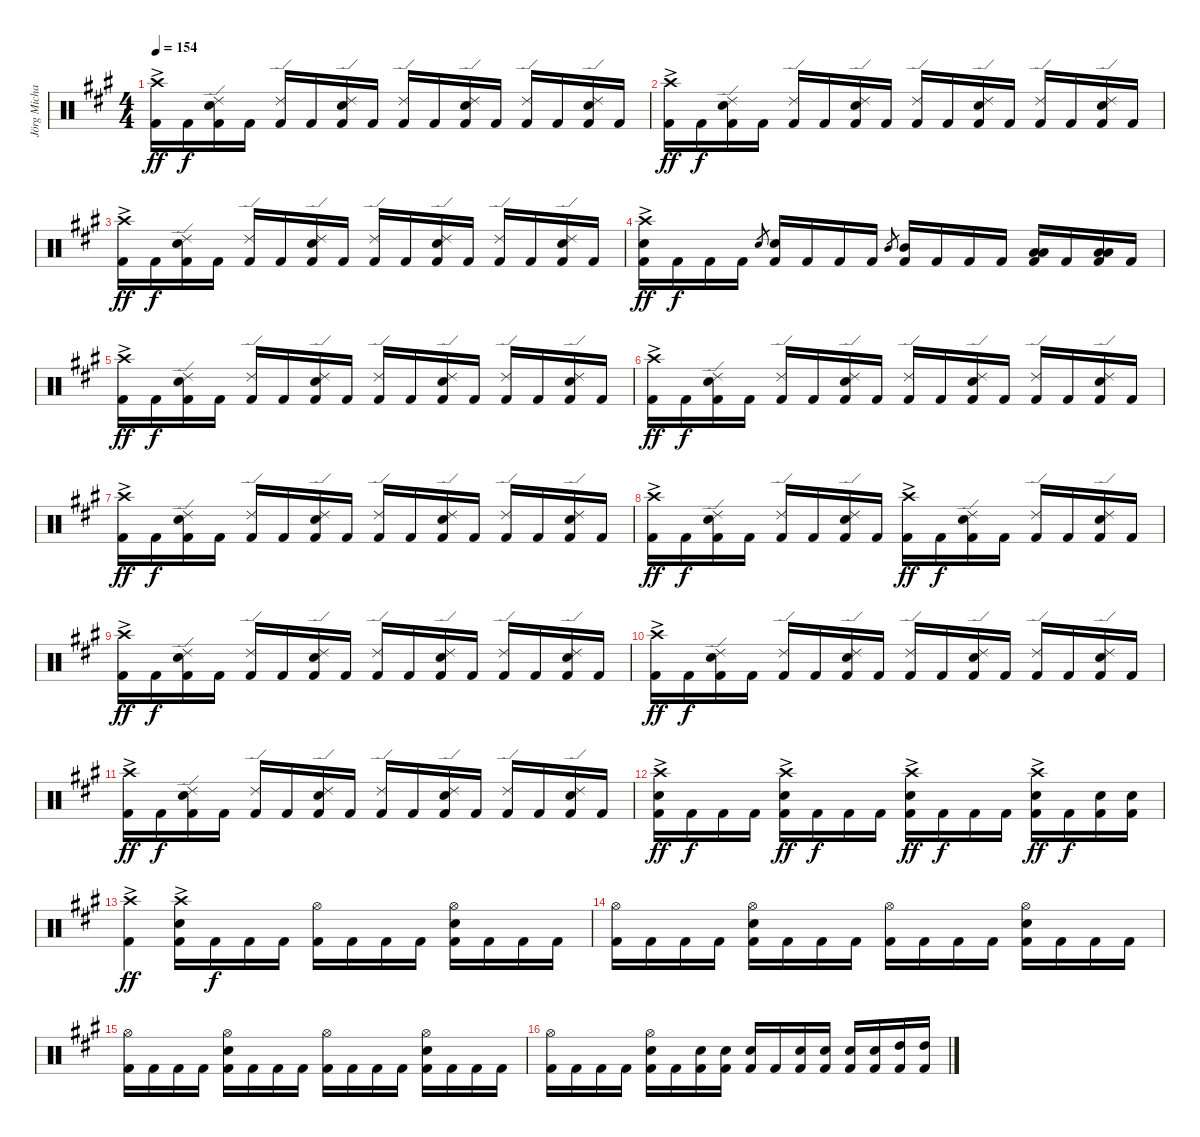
\track ("Jörg Michael" "Jörg Micha") {instrument percussion}
\staff {score}
\articulation defaults
\ts (4 4)
\tempo 154
\clef neutral
\ks a
("Crash high (hit)"{ac} "Kick (hit) 2"{ac}).16{dy ff} "Kick (hit) 2".16{dy f} ("Ride (edge) 2" "Kick (hit) 2" "Electric Snare (hit)").16 "Kick (hit) 2".16 ("Ride (edge) 2" "Kick (hit) 2").16 "Kick (hit) 2".16 ("Ride (edge) 2" "Kick (hit) 2" "Electric Snare (hit)").16 "Kick (hit) 2".16 ("Kick (hit) 2" "Ride (edge) 2").16 "Kick (hit) 2".16 ("Ride (edge) 2" "Kick (hit) 2" "Electric Snare (hit)").16 "Kick (hit) 2".16 ("Kick (hit) 2" "Ride (edge) 2").16 "Kick (hit) 2".16 ("Ride (edge) 2" "Kick (hit) 2" "Electric Snare (hit)").16 "Kick (hit) 2".16 |
("Crash high (hit)"{ac} "Kick (hit) 2"{ac}).16{dy ff} "Kick (hit) 2".16{dy f} ("Ride (edge) 2" "Kick (hit) 2" "Electric Snare (hit)").16 "Kick (hit) 2".16 ("Ride (edge) 2" "Kick (hit) 2").16 "Kick (hit) 2".16 ("Ride (edge) 2" "Kick (hit) 2" "Electric Snare (hit)").16 "Kick (hit) 2".16 ("Kick (hit) 2" "Ride (edge) 2").16 "Kick (hit) 2".16 ("Ride (edge) 2" "Kick (hit) 2" "Electric Snare (hit)").16 "Kick (hit) 2".16 ("Kick (hit) 2" "Ride (edge) 2").16 "Kick (hit) 2".16 ("Ride (edge) 2" "Kick (hit) 2" "Electric Snare (hit)").16 "Kick (hit) 2".16 |
("Crash high (hit)"{ac} "Kick (hit) 2"{ac}).16{dy ff} "Kick (hit) 2".16{dy f} ("Ride (edge) 2" "Kick (hit) 2" "Electric Snare (hit)").16 "Kick (hit) 2".16 ("Ride (edge) 2" "Kick (hit) 2").16 "Kick (hit) 2".16 ("Ride (edge) 2" "Kick (hit) 2" "Electric Snare (hit)").16 "Kick (hit) 2".16 ("Kick (hit) 2" "Ride (edge) 2").16 "Kick (hit) 2".16 ("Ride (edge) 2" "Kick (hit) 2" "Electric Snare (hit)").16 "Kick (hit) 2".16 ("Kick (hit) 2" "Ride (edge) 2").16 "Kick (hit) 2".16 ("Ride (edge) 2" "Kick (hit) 2" "Electric Snare (hit)").16 "Kick (hit) 2".16 |
("Crash high (hit)"{ac} "Kick (hit) 2"{ac} "Electric Snare (hit)").16{dy ff} "Kick (hit) 2".16{dy f} "Kick (hit) 2".16 "Kick (hit) 2".16 "Electric Snare (hit)".8{gr} ("Kick (hit) 2" "Electric Snare (hit)").16 "Kick (hit) 2".16 "Kick (hit) 2".16 "Kick (hit) 2".16 "Mid Tom (hit)".8{gr} ("Kick (hit) 2" "Mid Tom (hit)").16 "Kick (hit) 2".16 "Kick (hit) 2".16 "Kick (hit) 2".16 ("Kick (hit) 2" "Low Tom (hit)" "Low Tom (hit)").16 "Kick (hit) 2".16 ("Kick (hit) 2" "Low Tom (hit)" "Low Tom (hit)").16 "Kick (hit) 2".16 |
("Crash high (hit)"{ac} "Kick (hit) 2"{ac}).16{dy ff} "Kick (hit) 2".16{dy f} ("Ride (edge) 2" "Kick (hit) 2" "Electric Snare (hit)").16 "Kick (hit) 2".16 ("Ride (edge) 2" "Kick (hit) 2").16 "Kick (hit) 2".16 ("Ride (edge) 2" "Kick (hit) 2" "Electric Snare (hit)").16 "Kick (hit) 2".16 ("Kick (hit) 2" "Ride (edge) 2").16 "Kick (hit) 2".16 ("Ride (edge) 2" "Kick (hit) 2" "Electric Snare (hit)").16 "Kick (hit) 2".16 ("Kick (hit) 2" "Ride (edge) 2").16 "Kick (hit) 2".16 ("Ride (edge) 2" "Kick (hit) 2" "Electric Snare (hit)").16 "Kick (hit) 2".16 |
("Crash high (hit)"{ac} "Kick (hit) 2"{ac}).16{dy ff} "Kick (hit) 2".16{dy f} ("Ride (edge) 2" "Kick (hit) 2" "Electric Snare (hit)").16 "Kick (hit) 2".16 ("Ride (edge) 2" "Kick (hit) 2").16 "Kick (hit) 2".16 ("Ride (edge) 2" "Kick (hit) 2" "Electric Snare (hit)").16 "Kick (hit) 2".16 ("Kick (hit) 2" "Ride (edge) 2").16 "Kick (hit) 2".16 ("Ride (edge) 2" "Kick (hit) 2" "Electric Snare (hit)").16 "Kick (hit) 2".16 ("Kick (hit) 2" "Ride (edge) 2").16 "Kick (hit) 2".16 ("Ride (edge) 2" "Kick (hit) 2" "Electric Snare (hit)").16 "Kick (hit) 2".16 |
("Crash high (hit)"{ac} "Kick (hit) 2"{ac}).16{dy ff} "Kick (hit) 2".16{dy f} ("Ride (edge) 2" "Kick (hit) 2" "Electric Snare (hit)").16 "Kick (hit) 2".16 ("Ride (edge) 2" "Kick (hit) 2").16 "Kick (hit) 2".16 ("Ride (edge) 2" "Kick (hit) 2" "Electric Snare (hit)").16 "Kick (hit) 2".16 ("Kick (hit) 2" "Ride (edge) 2").16 "Kick (hit) 2".16 ("Ride (edge) 2" "Kick (hit) 2" "Electric Snare (hit)").16 "Kick (hit) 2".16 ("Kick (hit) 2" "Ride (edge) 2").16 "Kick (hit) 2".16 ("Ride (edge) 2" "Kick (hit) 2" "Electric Snare (hit)").16 "Kick (hit) 2".16 |
("Crash high (hit)"{ac} "Kick (hit) 2"{ac}).16{dy ff} "Kick (hit) 2".16{dy f} ("Ride (edge) 2" "Kick (hit) 2" "Electric Snare (hit)").16 "Kick (hit) 2".16 ("Ride (edge) 2" "Kick (hit) 2").16 "Kick (hit) 2".16 ("Ride (edge) 2" "Kick (hit) 2" "Electric Snare (hit)").16 "Kick (hit) 2".16 ("Kick (hit) 2"{ac} "Crash high (hit)"{ac}).16{dy ff} "Kick (hit) 2".16{dy f} ("Ride (edge) 2" "Kick (hit) 2" "Electric Snare (hit)").16 "Kick (hit) 2".16 ("Kick (hit) 2" "Ride (edge) 2").16 "Kick (hit) 2".16 ("Ride (edge) 2" "Kick (hit) 2" "Electric Snare (hit)").16 "Kick (hit) 2".16 |
("Crash high (hit)"{ac} "Kick (hit) 2"{ac}).16{dy ff} "Kick (hit) 2".16{dy f} ("Ride (edge) 2" "Kick (hit) 2" "Electric Snare (hit)").16 "Kick (hit) 2".16 ("Ride (edge) 2" "Kick (hit) 2").16 "Kick (hit) 2".16 ("Ride (edge) 2" "Kick (hit) 2" "Electric Snare (hit)").16 "Kick (hit) 2".16 ("Kick (hit) 2" "Ride (edge) 2").16 "Kick (hit) 2".16 ("Ride (edge) 2" "Kick (hit) 2" "Electric Snare (hit)").16 "Kick (hit) 2".16 ("Kick (hit) 2" "Ride (edge) 2").16 "Kick (hit) 2".16 ("Ride (edge) 2" "Kick (hit) 2" "Electric Snare (hit)").16 "Kick (hit) 2".16 |
("Crash high (hit)"{ac} "Kick (hit) 2"{ac}).16{dy ff} "Kick (hit) 2".16{dy f} ("Ride (edge) 2" "Kick (hit) 2" "Electric Snare (hit)").16 "Kick (hit) 2".16 ("Ride (edge) 2" "Kick (hit) 2").16 "Kick (hit) 2".16 ("Ride (edge) 2" "Kick (hit) 2" "Electric Snare (hit)").16 "Kick (hit) 2".16 ("Kick (hit) 2" "Ride (edge) 2").16 "Kick (hit) 2".16 ("Ride (edge) 2" "Kick (hit) 2" "Electric Snare (hit)").16 "Kick (hit) 2".16 ("Kick (hit) 2" "Ride (edge) 2").16 "Kick (hit) 2".16 ("Ride (edge) 2" "Kick (hit) 2" "Electric Snare (hit)").16 "Kick (hit) 2".16 |
("Crash high (hit)"{ac} "Kick (hit) 2"{ac}).16{dy ff} "Kick (hit) 2".16{dy f} ("Ride (edge) 2" "Kick (hit) 2" "Electric Snare (hit)").16 "Kick (hit) 2".16 ("Ride (edge) 2" "Kick (hit) 2").16 "Kick (hit) 2".16 ("Ride (edge) 2" "Kick (hit) 2" "Electric Snare (hit)").16 "Kick (hit) 2".16 ("Kick (hit) 2" "Ride (edge) 2").16 "Kick (hit) 2".16 ("Ride (edge) 2" "Kick (hit) 2" "Electric Snare (hit)").16 "Kick (hit) 2".16 ("Kick (hit) 2" "Ride (edge) 2").16 "Kick (hit) 2".16 ("Ride (edge) 2" "Kick (hit) 2" "Electric Snare (hit)").16 "Kick (hit) 2".16 |
("Crash high (hit)"{ac} "Kick (hit) 2"{ac} "Electric Snare (hit)"{ac}).16{dy ff} "Kick (hit) 2".16{dy f} "Kick (hit) 2".16 "Kick (hit) 2".16 ("Electric Snare (hit)"{ac} "Kick (hit) 2"{ac} "Crash high (hit)"{ac}).16{dy ff} "Kick (hit) 2".16{dy f} "Kick (hit) 2".16 "Kick (hit) 2".16 ("Electric Snare (hit)"{ac} "Kick (hit) 2"{ac} "Crash high (hit)"{ac}).16{dy ff} "Kick (hit) 2".16{dy f} "Kick (hit) 2".16 "Kick (hit) 2".16 ("Electric Snare (hit)"{ac} "Kick (hit) 2"{ac} "Crash high (hit)"{ac}).16{dy ff} "Kick (hit) 2".16{dy f} ("Electric Snare (hit)" "Kick (hit) 2").16 ("Electric Snare (hit)" "Kick (hit) 2").16 |
("Crash high (hit)"{ac} "Kick (hit) 2"{ac}).4{dy ff} ("Electric Snare (hit)"{ac} "Kick (hit) 2"{ac} "Crash high (hit)"{ac}).16 "Kick (hit) 2".16{dy f} "Kick (hit) 2".16 "Kick (hit) 2".16 ("Kick (hit) 2" "Hi-Hat (open)").16 "Kick (hit) 2".16 "Kick (hit) 2".16 "Kick (hit) 2".16 ("Electric Snare (hit)" "Kick (hit) 2" "Hi-Hat (open)").16 "Kick (hit) 2".16 "Kick (hit) 2".16 "Kick (hit) 2".16 |
("Hi-Hat (open)" "Kick (hit) 2").16 "Kick (hit) 2".16 "Kick (hit) 2".16 "Kick (hit) 2".16 ("Electric Snare (hit)" "Kick (hit) 2" "Hi-Hat (open)").16 "Kick (hit) 2".16 "Kick (hit) 2".16 "Kick (hit) 2".16 ("Kick (hit) 2" "Hi-Hat (open)").16 "Kick (hit) 2".16 "Kick (hit) 2".16 "Kick (hit) 2".16 ("Electric Snare (hit)" "Kick (hit) 2" "Hi-Hat (open)").16 "Kick (hit) 2".16 "Kick (hit) 2".16 "Kick (hit) 2".16 |
("Hi-Hat (open)" "Kick (hit) 2").16 "Kick (hit) 2".16 "Kick (hit) 2".16 "Kick (hit) 2".16 ("Electric Snare (hit)" "Kick (hit) 2" "Hi-Hat (open)").16 "Kick (hit) 2".16 "Kick (hit) 2".16 "Kick (hit) 2".16 ("Kick (hit) 2" "Hi-Hat (open)").16 "Kick (hit) 2".16 "Kick (hit) 2".16 "Kick (hit) 2".16 ("Electric Snare (hit)" "Kick (hit) 2" "Hi-Hat (open)").16 "Kick (hit) 2".16 "Kick (hit) 2".16 "Kick (hit) 2".16 |
("Hi-Hat (open)" "Kick (hit) 2").16 "Kick (hit) 2".16 "Kick (hit) 2".16 "Kick (hit) 2".16 ("Electric Snare (hit)" "Kick (hit) 2" "Hi-Hat (open)").16 "Kick (hit) 2".16 ("Kick (hit) 2" "Electric Snare (hit)").16 ("Kick (hit) 2" "Electric Snare (hit)").16 ("Kick (hit) 2" "Electric Snare (hit)").16 "Kick (hit) 2".16 ("Kick (hit) 2" "Electric Snare (hit)").16 ("Kick (hit) 2" "Electric Snare (hit)").16 ("Electric Snare (hit)" "Kick (hit) 2").16 ("Kick (hit) 2" "Electric Snare (hit)").16 ("Kick (hit) 2" "High Tom (hit)").16 ("Kick (hit) 2" "High Tom (hit)").16
